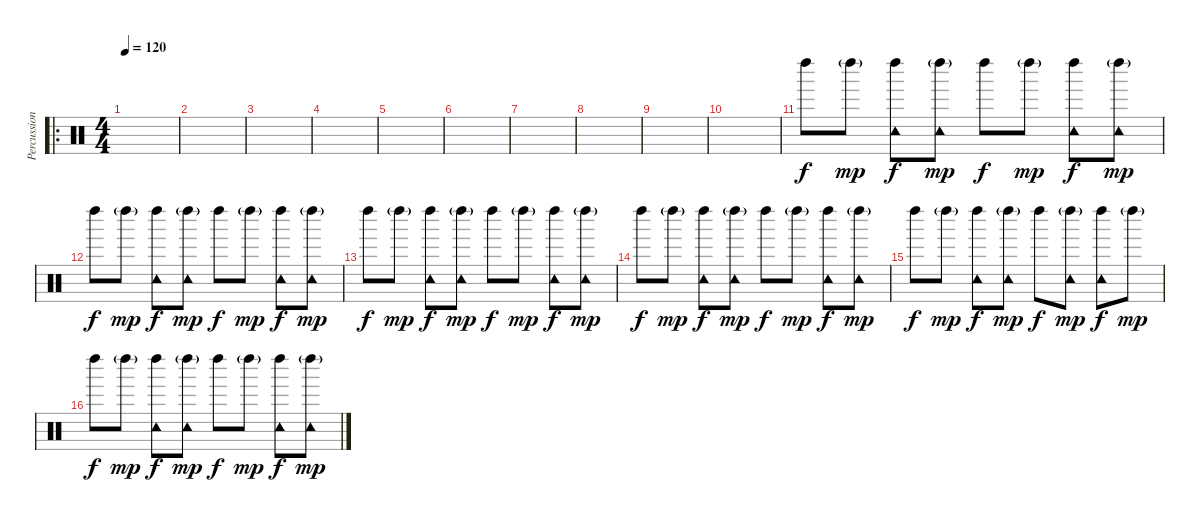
\track ("Percussions" "Percussion") {instrument percussion}
\staff {score}
\articulation defaults
\ro
\ts (4 4)
\tempo 120
\clef neutral
\ks c
|
|
|
|
|
|
|
|
|
|
"Left Maraca (hit)".8 "Left Maraca (hit)"{g}.8{dy mp} ("Left Maraca (hit)" "Tambourine (hit)").8{dy f} ("Left Maraca (hit)"{g} "Tambourine (hit)").8{dy mp} "Left Maraca (hit)".8{dy f} "Left Maraca (hit)"{g}.8{dy mp} ("Left Maraca (hit)" "Tambourine (hit)").8{dy f} ("Left Maraca (hit)"{g} "Tambourine (hit)").8{dy mp} |
"Left Maraca (hit)".8{dy f} "Left Maraca (hit)"{g}.8{dy mp} ("Left Maraca (hit)" "Tambourine (hit)").8{dy f} ("Left Maraca (hit)"{g} "Tambourine (hit)").8{dy mp} "Left Maraca (hit)".8{dy f} "Left Maraca (hit)"{g}.8{dy mp} ("Left Maraca (hit)" "Tambourine (hit)").8{dy f} ("Left Maraca (hit)"{g} "Tambourine (hit)").8{dy mp} |
"Left Maraca (hit)".8{dy f} "Left Maraca (hit)"{g}.8{dy mp} ("Left Maraca (hit)" "Tambourine (hit)").8{dy f} ("Left Maraca (hit)"{g} "Tambourine (hit)").8{dy mp} "Left Maraca (hit)".8{dy f} "Left Maraca (hit)"{g}.8{dy mp} ("Left Maraca (hit)" "Tambourine (hit)").8{dy f} ("Left Maraca (hit)"{g} "Tambourine (hit)").8{dy mp} |
"Left Maraca (hit)".8{dy f} "Left Maraca (hit)"{g}.8{dy mp} ("Left Maraca (hit)" "Tambourine (hit)").8{dy f} ("Left Maraca (hit)"{g} "Tambourine (hit)").8{dy mp} "Left Maraca (hit)".8{dy f} "Left Maraca (hit)"{g}.8{dy mp} ("Left Maraca (hit)" "Tambourine (hit)").8{dy f} ("Left Maraca (hit)"{g} "Tambourine (hit)").8{dy mp} |
"Left Maraca (hit)".8{dy f} "Left Maraca (hit)"{g}.8{dy mp} ("Left Maraca (hit)" "Tambourine (hit)").8{dy f} ("Left Maraca (hit)"{g} "Tambourine (hit)").8{dy mp} "Left Maraca (hit)".8{dy f} ("Left Maraca (hit)"{g} "Tambourine (hit)").8{dy mp} ("Left Maraca (hit)" "Tambourine (hit)").8{dy f} "Left Maraca (hit)"{g}.8{dy mp} |
"Left Maraca (hit)".8{dy f} "Left Maraca (hit)"{g}.8{dy mp} ("Left Maraca (hit)" "Tambourine (hit)").8{dy f} ("Left Maraca (hit)"{g} "Tambourine (hit)").8{dy mp} "Left Maraca (hit)".8{dy f} "Left Maraca (hit)"{g}.8{dy mp} ("Left Maraca (hit)" "Tambourine (hit)").8{dy f} ("Left Maraca (hit)"{g} "Tambourine (hit)").8{dy mp}
